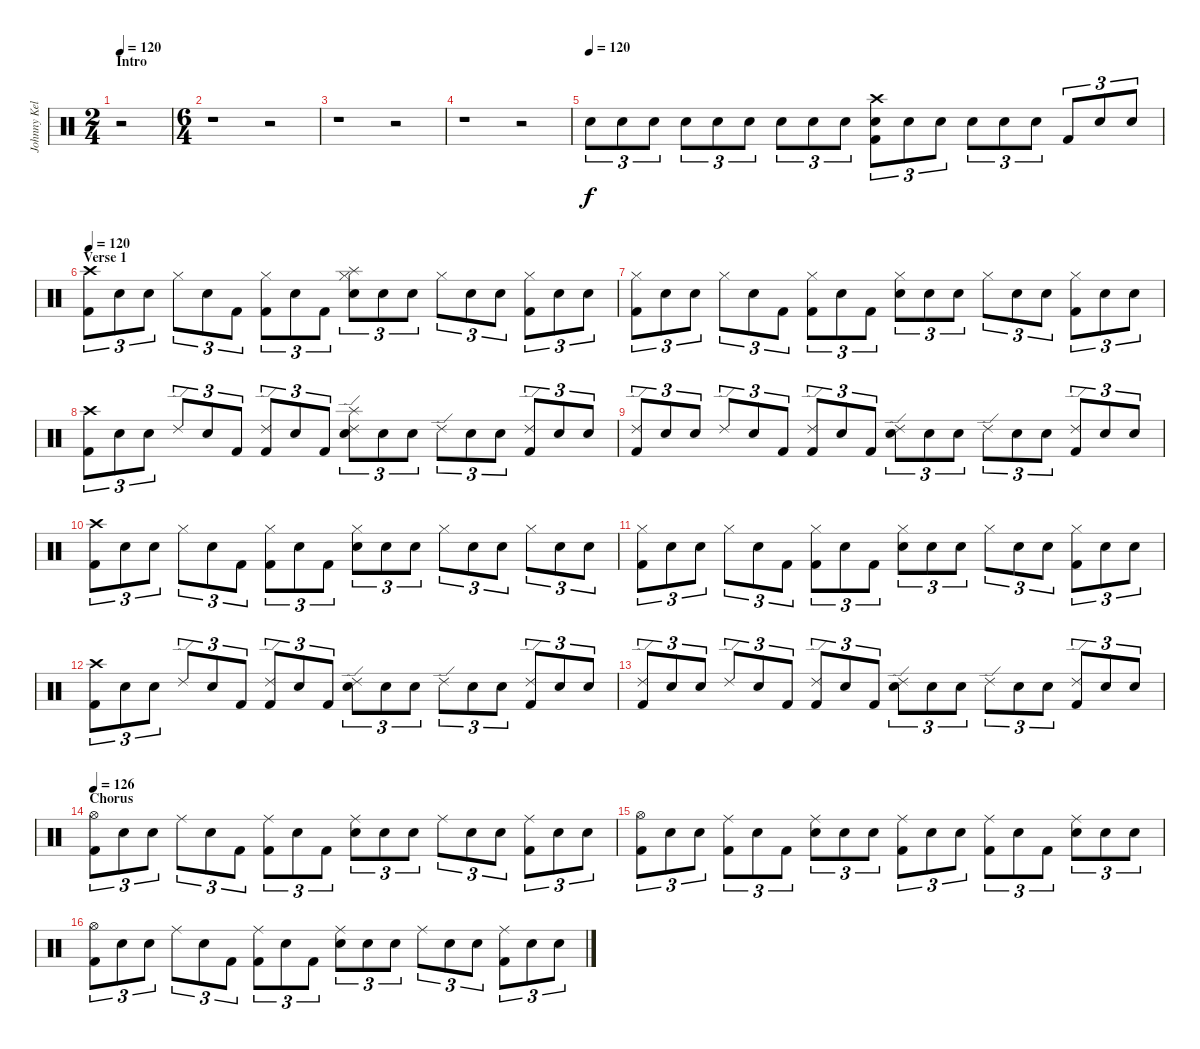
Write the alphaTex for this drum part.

\track ("Johnny Kelly - Drums" "Johnny Kel") {instrument percussion}
\staff {score}
\articulation defaults
\ts (2 4)
\section ("" "Intro")
\tempo 120
\tempo 118
\tempo 120
\clef neutral
\ks c
r.2{dy f volume 16 balance 8} |
\ts (6 4)
r.1 r.2 |
r.1 r.2 |
r.1 r.2 |
\tempo (120)
"Snare (hit)".8{tu (3 2) volume 16 balance 8} "Snare (hit)".8{tu (3 2)} "Snare (hit)".8{tu (3 2)} "Snare (hit)".8{tu (3 2)} "Snare (hit)".8{tu (3 2)} "Snare (hit)".8{tu (3 2)} "Snare (hit)".8{tu (3 2)} "Snare (hit)".8{tu (3 2)} "Snare (hit)".8{tu (3 2)} ("Crash high (hit)" "Electric Snare (hit)" "Kick (hit) 2").8{tu (3 2)} "Snare (hit)".8{tu (3 2)} "Snare (hit)".8{tu (3 2)} "Snare (hit)".8{tu (3 2)} "Snare (hit)".8{tu (3 2)} "Electric Snare (hit)".8{tu (3 2)} "Kick (hit) 2".8{tu (3 2)} "Snare (hit)".8{tu (3 2)} "Electric Snare (hit)".8{tu (3 2)} |
\section ("" "Verse 1")
\tempo 120
("Crash high (hit)" "Kick (hit) 2").8{tu (3 2) volume 16 balance 8} "Snare (hit)".8{tu (3 2)} "Snare (hit)".8{tu (3 2)} "Hi-Hat (closed)".8{tu (3 2)} "Snare (hit)".8{tu (3 2)} "Kick (hit) 2".8{tu (3 2)} ("Hi-Hat (closed)" "Kick (hit) 2").8{tu (3 2)} "Snare (hit)".8{tu (3 2)} "Kick (hit) 2".8{tu (3 2)} ("Hi-Hat (closed)" "Splash (hit)" "Electric Snare (hit)").8{tu (3 2)} "Snare (hit)".8{tu (3 2)} "Snare (hit)".8{tu (3 2)} "Hi-Hat (closed)".8{tu (3 2)} "Snare (hit)".8{tu (3 2)} "Electric Snare (hit)".8{tu (3 2)} ("Hi-Hat (closed)" "Kick (hit) 2").8{tu (3 2)} "Snare (hit)".8{tu (3 2)} "Electric Snare (hit)".8{tu (3 2)} |
("Hi-Hat (closed)" "Kick (hit) 2").8{tu (3 2)} "Snare (hit)".8{tu (3 2)} "Snare (hit)".8{tu (3 2)} "Hi-Hat (closed)".8{tu (3 2)} "Snare (hit)".8{tu (3 2)} "Kick (hit) 2".8{tu (3 2)} ("Hi-Hat (closed)" "Kick (hit) 2").8{tu (3 2)} "Snare (hit)".8{tu (3 2)} "Kick (hit) 2".8{tu (3 2)} ("Hi-Hat (closed)" "Electric Snare (hit)").8{tu (3 2)} "Snare (hit)".8{tu (3 2)} "Snare (hit)".8{tu (3 2)} "Hi-Hat (closed)".8{tu (3 2)} "Snare (hit)".8{tu (3 2)} "Electric Snare (hit)".8{tu (3 2)} ("Hi-Hat (closed)" "Kick (hit) 2").8{tu (3 2)} "Snare (hit)".8{tu (3 2)} "Electric Snare (hit)".8{tu (3 2)} |
("Crash high (hit)" "Kick (hit) 2").8{tu (3 2)} "Snare (hit)".8{tu (3 2)} "Snare (hit)".8{tu (3 2)} "Ride (edge) 2".8{tu (3 2)} "Snare (hit)".8{tu (3 2)} "Kick (hit) 2".8{tu (3 2)} ("Ride (edge) 2" "Kick (hit) 2").8{tu (3 2)} "Snare (hit)".8{tu (3 2)} "Kick (hit) 2".8{tu (3 2)} ("Ride (edge) 2" "Splash (hit)" "Electric Snare (hit)").8{tu (3 2)} "Snare (hit)".8{tu (3 2)} "Snare (hit)".8{tu (3 2)} "Ride (edge) 2".8{tu (3 2)} "Snare (hit)".8{tu (3 2)} "Electric Snare (hit)".8{tu (3 2)} ("Ride (edge) 2" "Kick (hit) 2").8{tu (3 2)} "Snare (hit)".8{tu (3 2)} "Electric Snare (hit)".8{tu (3 2)} |
("Ride (edge) 2" "Kick (hit) 2").8{tu (3 2)} "Snare (hit)".8{tu (3 2)} "Snare (hit)".8{tu (3 2)} "Ride (edge) 2".8{tu (3 2)} "Snare (hit)".8{tu (3 2)} "Kick (hit) 2".8{tu (3 2)} ("Ride (edge) 2" "Kick (hit) 2").8{tu (3 2)} "Snare (hit)".8{tu (3 2)} "Kick (hit) 2".8{tu (3 2)} ("Ride (edge) 2" "Electric Snare (hit)").8{tu (3 2)} "Snare (hit)".8{tu (3 2)} "Snare (hit)".8{tu (3 2)} "Ride (edge) 2".8{tu (3 2)} "Snare (hit)".8{tu (3 2)} "Electric Snare (hit)".8{tu (3 2)} ("Ride (edge) 2" "Kick (hit) 2").8{tu (3 2)} "Snare (hit)".8{tu (3 2)} "Electric Snare (hit)".8{tu (3 2)} |
("Crash high (hit)" "Kick (hit) 2").8{tu (3 2)} "Snare (hit)".8{tu (3 2)} "Snare (hit)".8{tu (3 2)} "Hi-Hat (closed)".8{tu (3 2)} "Snare (hit)".8{tu (3 2)} "Kick (hit) 2".8{tu (3 2)} ("Hi-Hat (closed)" "Kick (hit) 2").8{tu (3 2)} "Snare (hit)".8{tu (3 2)} "Kick (hit) 2".8{tu (3 2)} ("Hi-Hat (closed)" "Electric Snare (hit)").8{tu (3 2)} "Snare (hit)".8{tu (3 2)} "Snare (hit)".8{tu (3 2)} "Hi-Hat (closed)".8{tu (3 2)} "Snare (hit)".8{tu (3 2)} "Snare (hit)".8{tu (3 2)} "Hi-Hat (closed)".8{tu (3 2)} "Snare (hit)".8{tu (3 2)} "Snare (hit)".8{tu (3 2)} |
("Hi-Hat (closed)" "Kick (hit) 2").8{tu (3 2)} "Snare (hit)".8{tu (3 2)} "Snare (hit)".8{tu (3 2)} "Hi-Hat (closed)".8{tu (3 2)} "Snare (hit)".8{tu (3 2)} "Kick (hit) 2".8{tu (3 2)} ("Hi-Hat (closed)" "Kick (hit) 2").8{tu (3 2)} "Snare (hit)".8{tu (3 2)} "Kick (hit) 2".8{tu (3 2)} ("Hi-Hat (closed)" "Electric Snare (hit)").8{tu (3 2)} "Snare (hit)".8{tu (3 2)} "Snare (hit)".8{tu (3 2)} "Hi-Hat (closed)".8{tu (3 2)} "Snare (hit)".8{tu (3 2)} "Electric Snare (hit)".8{tu (3 2)} ("Hi-Hat (closed)" "Kick (hit) 2").8{tu (3 2)} "Snare (hit)".8{tu (3 2)} "Electric Snare (hit)".8{tu (3 2)} |
("Crash high (hit)" "Kick (hit) 2").8{tu (3 2)} "Snare (hit)".8{tu (3 2)} "Snare (hit)".8{tu (3 2)} "Ride (edge) 2".8{tu (3 2)} "Snare (hit)".8{tu (3 2)} "Kick (hit) 2".8{tu (3 2)} ("Ride (edge) 2" "Kick (hit) 2").8{tu (3 2)} "Snare (hit)".8{tu (3 2)} "Kick (hit) 2".8{tu (3 2)} ("Ride (edge) 2" "Electric Snare (hit)").8{tu (3 2)} "Snare (hit)".8{tu (3 2)} "Snare (hit)".8{tu (3 2)} "Ride (edge) 2".8{tu (3 2)} "Snare (hit)".8{tu (3 2)} "Electric Snare (hit)".8{tu (3 2)} ("Ride (edge) 2" "Kick (hit) 2").8{tu (3 2)} "Snare (hit)".8{tu (3 2)} "Electric Snare (hit)".8{tu (3 2)} |
("Ride (edge) 2" "Kick (hit) 2").8{tu (3 2)} "Snare (hit)".8{tu (3 2)} "Snare (hit)".8{tu (3 2)} "Ride (edge) 2".8{tu (3 2)} "Snare (hit)".8{tu (3 2)} "Kick (hit) 2".8{tu (3 2)} ("Ride (edge) 2" "Kick (hit) 2").8{tu (3 2)} "Snare (hit)".8{tu (3 2)} "Kick (hit) 2".8{tu (3 2)} ("Ride (edge) 2" "Electric Snare (hit)").8{tu (3 2)} "Snare (hit)".8{tu (3 2)} "Snare (hit)".8{tu (3 2)} "Ride (edge) 2".8{tu (3 2)} "Snare (hit)".8{tu (3 2)} "Electric Snare (hit)".8{tu (3 2)} ("Ride (edge) 2" "Kick (hit) 2").8{tu (3 2)} "Snare (hit)".8{tu (3 2)} "Electric Snare (hit)".8{tu (3 2)} |
\section ("" "Chorus")
\tempo 126
("Hi-Hat (open)" "Kick (hit) 2").8{tu (3 2) volume 16 balance 8} "Snare (hit)".8{tu (3 2)} "Snare (hit)".8{tu (3 2)} "Ride (middle)".8{tu (3 2)} "Snare (hit)".8{tu (3 2)} "Kick (hit) 2".8{tu (3 2)} ("Ride (middle)" "Kick (hit) 2").8{tu (3 2)} "Snare (hit)".8{tu (3 2)} "Kick (hit) 2".8{tu (3 2)} ("Ride (middle)" "Electric Snare (hit)").8{tu (3 2)} "Snare (hit)".8{tu (3 2)} "Snare (hit)".8{tu (3 2)} "Ride (middle)".8{tu (3 2)} "Snare (hit)".8{tu (3 2)} "Electric Snare (hit)".8{tu (3 2)} ("Ride (middle)" "Kick (hit) 2").8{tu (3 2)} "Snare (hit)".8{tu (3 2)} "Electric Snare (hit)".8{tu (3 2)} |
("Hi-Hat (open)" "Kick (hit) 2").8{tu (3 2)} "Snare (hit)".8{tu (3 2)} "Electric Snare (hit)".8{tu (3 2)} ("Ride (middle)" "Kick (hit) 2").8{tu (3 2)} "Snare (hit)".8{tu (3 2)} "Kick (hit) 2".8{tu (3 2)} ("Ride (middle)" "Electric Snare (hit)").8{tu (3 2)} "Snare (hit)".8{tu (3 2)} "Electric Snare (hit)".8{tu (3 2)} ("Ride (middle)" "Kick (hit) 2").8{tu (3 2)} "Snare (hit)".8{tu (3 2)} "Electric Snare (hit)".8{tu (3 2)} ("Ride (middle)" "Kick (hit) 2").8{tu (3 2)} "Snare (hit)".8{tu (3 2)} "Kick (hit) 2".8{tu (3 2)} ("Ride (middle)" "Electric Snare (hit)").8{tu (3 2)} "Snare (hit)".8{tu (3 2)} "Electric Snare (hit)".8{tu (3 2)} |
("Hi-Hat (open)" "Kick (hit) 2").8{tu (3 2)} "Snare (hit)".8{tu (3 2)} "Snare (hit)".8{tu (3 2)} "Ride (middle)".8{tu (3 2)} "Snare (hit)".8{tu (3 2)} "Kick (hit) 2".8{tu (3 2)} ("Ride (middle)" "Kick (hit) 2").8{tu (3 2)} "Snare (hit)".8{tu (3 2)} "Kick (hit) 2".8{tu (3 2)} ("Ride (middle)" "Electric Snare (hit)").8{tu (3 2)} "Snare (hit)".8{tu (3 2)} "Snare (hit)".8{tu (3 2)} "Ride (middle)".8{tu (3 2)} "Snare (hit)".8{tu (3 2)} "Electric Snare (hit)".8{tu (3 2)} ("Ride (middle)" "Kick (hit) 2").8{tu (3 2)} "Snare (hit)".8{tu (3 2)} "Electric Snare (hit)".8{tu (3 2)}
